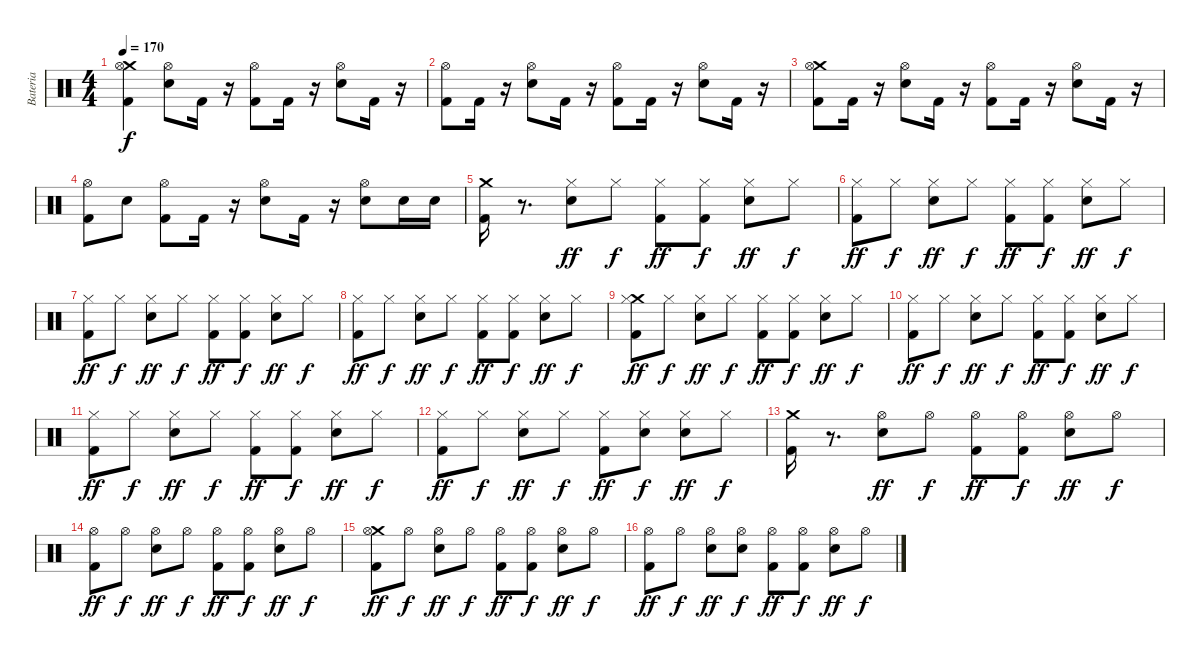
\track ("Bateria" "Bateria") {instrument percussion}
\staff {score}
\articulation defaults
\ts (4 4)
\tempo 170
\clef neutral
\ks c
("Crash medium (hit)" "Hi-Hat (open)" "Kick (hit) 2").4{dy f} ("Hi-Hat (open)" "Electric Snare (hit)").8 "Kick (hit) 2".16 r.16 ("Hi-Hat (open)" "Kick (hit) 2").8 "Kick (hit) 2".16 r.16 ("Hi-Hat (open)" "Electric Snare (hit)").8 "Kick (hit) 2".16 r.16 |
("Hi-Hat (open)" "Kick (hit) 2").8 "Kick (hit) 2".16 r.16 ("Hi-Hat (open)" "Electric Snare (hit)").8 "Kick (hit) 2".16 r.16 ("Hi-Hat (open)" "Kick (hit) 2").8 "Kick (hit) 2".16 r.16 ("Hi-Hat (open)" "Electric Snare (hit)").8 "Kick (hit) 2".16 r.16 |
("Crash medium (hit)" "Hi-Hat (open)" "Kick (hit) 2").8 "Kick (hit) 2".16 r.16 ("Hi-Hat (open)" "Electric Snare (hit)").8 "Kick (hit) 2".16 r.16 ("Hi-Hat (open)" "Kick (hit) 2").8 "Kick (hit) 2".16 r.16 ("Hi-Hat (open)" "Electric Snare (hit)").8 "Kick (hit) 2".16 r.16 |
("Hi-Hat (open)" "Kick (hit) 2").8 "Electric Snare (hit)".8 ("Hi-Hat (open)" "Kick (hit) 2").8 "Kick (hit) 2".16 r.16 ("Hi-Hat (open)" "Electric Snare (hit)").8 "Kick (hit) 2".16 r.16 ("Hi-Hat (open)" "Electric Snare (hit)").8 "Electric Snare (hit)".16 "Electric Snare (hit)".16 |
("Crash medium (hit)" "Kick (hit) 2").16 r.8{d} ("Hi-Hat (closed)" "Electric Snare (hit)").8{dy ff} "Hi-Hat (closed)".8{dy f} ("Hi-Hat (closed)" "Kick (hit) 2").8{dy ff} ("Hi-Hat (closed)" "Kick (hit) 2").8{dy f} ("Hi-Hat (closed)" "Electric Snare (hit)").8{dy ff} "Hi-Hat (closed)".8{dy f} |
("Hi-Hat (closed)" "Kick (hit) 2").8{dy ff} "Hi-Hat (closed)".8{dy f} ("Hi-Hat (closed)" "Electric Snare (hit)").8{dy ff} "Hi-Hat (closed)".8{dy f} ("Hi-Hat (closed)" "Kick (hit) 2").8{dy ff} ("Hi-Hat (closed)" "Kick (hit) 2").8{dy f} ("Hi-Hat (closed)" "Electric Snare (hit)").8{dy ff} "Hi-Hat (closed)".8{dy f} |
("Hi-Hat (closed)" "Kick (hit) 2").8{dy ff} "Hi-Hat (closed)".8{dy f} ("Hi-Hat (closed)" "Electric Snare (hit)").8{dy ff} "Hi-Hat (closed)".8{dy f} ("Hi-Hat (closed)" "Kick (hit) 2").8{dy ff} ("Hi-Hat (closed)" "Kick (hit) 2").8{dy f} ("Hi-Hat (closed)" "Electric Snare (hit)").8{dy ff} "Hi-Hat (closed)".8{dy f} |
("Hi-Hat (closed)" "Kick (hit) 2").8{dy ff} "Hi-Hat (closed)".8{dy f} ("Hi-Hat (closed)" "Electric Snare (hit)").8{dy ff} "Hi-Hat (closed)".8{dy f} ("Hi-Hat (closed)" "Kick (hit) 2").8{dy ff} ("Hi-Hat (closed)" "Kick (hit) 2").8{dy f} ("Hi-Hat (closed)" "Electric Snare (hit)").8{dy ff} "Hi-Hat (closed)".8{dy f} |
("Crash medium (hit)" "Hi-Hat (closed)" "Kick (hit) 2").8{dy ff} "Hi-Hat (closed)".8{dy f} ("Hi-Hat (closed)" "Electric Snare (hit)").8{dy ff} "Hi-Hat (closed)".8{dy f} ("Hi-Hat (closed)" "Kick (hit) 2").8{dy ff} ("Hi-Hat (closed)" "Kick (hit) 2").8{dy f} ("Hi-Hat (closed)" "Electric Snare (hit)").8{dy ff} "Hi-Hat (closed)".8{dy f} |
("Hi-Hat (closed)" "Kick (hit) 2").8{dy ff} "Hi-Hat (closed)".8{dy f} ("Hi-Hat (closed)" "Electric Snare (hit)").8{dy ff} "Hi-Hat (closed)".8{dy f} ("Hi-Hat (closed)" "Kick (hit) 2").8{dy ff} ("Hi-Hat (closed)" "Kick (hit) 2").8{dy f} ("Hi-Hat (closed)" "Electric Snare (hit)").8{dy ff} "Hi-Hat (closed)".8{dy f} |
("Hi-Hat (closed)" "Kick (hit) 2").8{dy ff} "Hi-Hat (closed)".8{dy f} ("Hi-Hat (closed)" "Electric Snare (hit)").8{dy ff} "Hi-Hat (closed)".8{dy f} ("Hi-Hat (closed)" "Kick (hit) 2").8{dy ff} ("Hi-Hat (closed)" "Kick (hit) 2").8{dy f} ("Hi-Hat (closed)" "Electric Snare (hit)").8{dy ff} "Hi-Hat (closed)".8{dy f} |
("Hi-Hat (closed)" "Kick (hit) 2").8{dy ff} "Hi-Hat (closed)".8{dy f} ("Hi-Hat (closed)" "Electric Snare (hit)").8{dy ff} "Hi-Hat (closed)".8{dy f} ("Hi-Hat (closed)" "Kick (hit) 2").8{dy ff} ("Hi-Hat (closed)" "Electric Snare (hit)").8{dy f} ("Hi-Hat (closed)" "Electric Snare (hit)").8{dy ff} "Hi-Hat (closed)".8{dy f} |
("Crash medium (hit)" "Kick (hit) 2").16 r.8{d} ("Hi-Hat (open)" "Electric Snare (hit)").8{dy ff} "Hi-Hat (open)".8{dy f} ("Hi-Hat (open)" "Kick (hit) 2").8{dy ff} ("Hi-Hat (open)" "Kick (hit) 2").8{dy f} ("Hi-Hat (open)" "Electric Snare (hit)").8{dy ff} "Hi-Hat (open)".8{dy f} |
("Hi-Hat (open)" "Kick (hit) 2").8{dy ff} "Hi-Hat (open)".8{dy f} ("Hi-Hat (open)" "Electric Snare (hit)").8{dy ff} "Hi-Hat (open)".8{dy f} ("Hi-Hat (open)" "Kick (hit) 2").8{dy ff} ("Hi-Hat (open)" "Kick (hit) 2").8{dy f} ("Hi-Hat (open)" "Electric Snare (hit)").8{dy ff} "Hi-Hat (open)".8{dy f} |
("Crash medium (hit)" "Hi-Hat (open)" "Kick (hit) 2").8{dy ff} "Hi-Hat (open)".8{dy f} ("Hi-Hat (open)" "Electric Snare (hit)").8{dy ff} "Hi-Hat (open)".8{dy f} ("Hi-Hat (open)" "Kick (hit) 2").8{dy ff} ("Hi-Hat (open)" "Kick (hit) 2").8{dy f} ("Hi-Hat (open)" "Electric Snare (hit)").8{dy ff} "Hi-Hat (open)".8{dy f} |
("Hi-Hat (open)" "Kick (hit) 2").8{dy ff} "Hi-Hat (open)".8{dy f} ("Hi-Hat (open)" "Electric Snare (hit)").8{dy ff} ("Hi-Hat (open)" "Electric Snare (hit)").8{dy f} ("Hi-Hat (open)" "Kick (hit) 2").8{dy ff} ("Hi-Hat (open)" "Kick (hit) 2").8{dy f} ("Hi-Hat (open)" "Electric Snare (hit)").8{dy ff} "Hi-Hat (open)".8{dy f}
